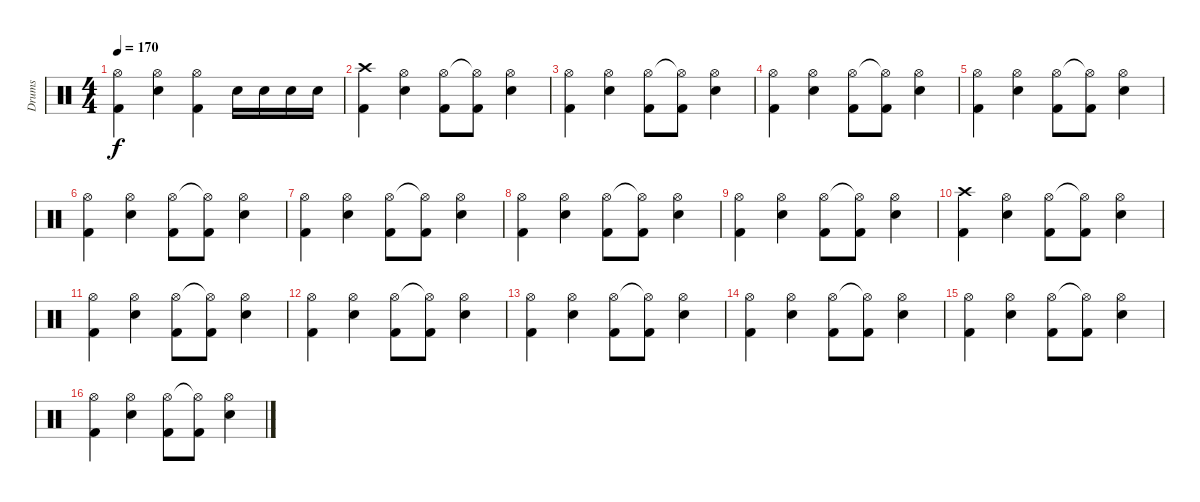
\track ("Drums" "Drums") {instrument percussion}
\staff {score}
\articulation defaults
\ts (4 4)
\tempo 170
\clef neutral
\ks c
("Hi-Hat (open)" "Kick (hit) 2").4{dy f} ("Hi-Hat (open)" "Snare (hit) 2").4 ("Hi-Hat (open)" "Kick (hit) 2").4 "Snare (hit) 2".16 "Snare (hit) 2".16 "Snare (hit) 2".16 "Snare (hit) 2".16 |
("Crash high (hit)" "Kick (hit) 2").4 ("Hi-Hat (open)" "Snare (hit) 2").4 ("Hi-Hat (open)" "Kick (hit) 2").8 ("Hi-Hat (open)"{t} "Kick (hit) 2").8 ("Hi-Hat (open)" "Snare (hit) 2").4 |
("Hi-Hat (open)" "Kick (hit) 2").4 ("Hi-Hat (open)" "Snare (hit) 2").4 ("Hi-Hat (open)" "Kick (hit) 2").8 ("Hi-Hat (open)"{t} "Kick (hit) 2").8 ("Hi-Hat (open)" "Snare (hit) 2").4 |
("Hi-Hat (open)" "Kick (hit) 2").4 ("Hi-Hat (open)" "Snare (hit) 2").4 ("Hi-Hat (open)" "Kick (hit) 2").8 ("Hi-Hat (open)"{t} "Kick (hit) 2").8 ("Hi-Hat (open)" "Snare (hit) 2").4 |
("Hi-Hat (open)" "Kick (hit) 2").4 ("Hi-Hat (open)" "Snare (hit) 2").4 ("Hi-Hat (open)" "Kick (hit) 2").8 ("Hi-Hat (open)"{t} "Kick (hit) 2").8 ("Hi-Hat (open)" "Snare (hit) 2").4 |
("Hi-Hat (open)" "Kick (hit) 2").4 ("Hi-Hat (open)" "Snare (hit) 2").4 ("Hi-Hat (open)" "Kick (hit) 2").8 ("Hi-Hat (open)"{t} "Kick (hit) 2").8 ("Hi-Hat (open)" "Snare (hit) 2").4 |
("Hi-Hat (open)" "Kick (hit) 2").4 ("Hi-Hat (open)" "Snare (hit) 2").4 ("Hi-Hat (open)" "Kick (hit) 2").8 ("Hi-Hat (open)"{t} "Kick (hit) 2").8 ("Hi-Hat (open)" "Snare (hit) 2").4 |
("Hi-Hat (open)" "Kick (hit) 2").4 ("Hi-Hat (open)" "Snare (hit) 2").4 ("Hi-Hat (open)" "Kick (hit) 2").8 ("Hi-Hat (open)"{t} "Kick (hit) 2").8 ("Hi-Hat (open)" "Snare (hit) 2").4 |
("Hi-Hat (open)" "Kick (hit) 2").4 ("Hi-Hat (open)" "Snare (hit) 2").4 ("Hi-Hat (open)" "Kick (hit) 2").8 ("Hi-Hat (open)"{t} "Kick (hit) 2").8 ("Hi-Hat (open)" "Snare (hit) 2").4 |
("Crash high (hit)" "Kick (hit) 2").4 ("Hi-Hat (open)" "Snare (hit) 2").4 ("Hi-Hat (open)" "Kick (hit) 2").8 ("Hi-Hat (open)"{t} "Kick (hit) 2").8 ("Hi-Hat (open)" "Snare (hit) 2").4 |
("Hi-Hat (open)" "Kick (hit) 2").4 ("Hi-Hat (open)" "Snare (hit) 2").4 ("Hi-Hat (open)" "Kick (hit) 2").8 ("Hi-Hat (open)"{t} "Kick (hit) 2").8 ("Hi-Hat (open)" "Snare (hit) 2").4 |
("Hi-Hat (open)" "Kick (hit) 2").4 ("Hi-Hat (open)" "Snare (hit) 2").4 ("Hi-Hat (open)" "Kick (hit) 2").8 ("Hi-Hat (open)"{t} "Kick (hit) 2").8 ("Hi-Hat (open)" "Snare (hit) 2").4 |
("Hi-Hat (open)" "Kick (hit) 2").4 ("Hi-Hat (open)" "Snare (hit) 2").4 ("Hi-Hat (open)" "Kick (hit) 2").8 ("Hi-Hat (open)"{t} "Kick (hit) 2").8 ("Hi-Hat (open)" "Snare (hit) 2").4 |
("Hi-Hat (open)" "Kick (hit) 2").4 ("Hi-Hat (open)" "Snare (hit) 2").4 ("Hi-Hat (open)" "Kick (hit) 2").8 ("Hi-Hat (open)"{t} "Kick (hit) 2").8 ("Hi-Hat (open)" "Snare (hit) 2").4 |
("Hi-Hat (open)" "Kick (hit) 2").4 ("Hi-Hat (open)" "Snare (hit) 2").4 ("Hi-Hat (open)" "Kick (hit) 2").8 ("Hi-Hat (open)"{t} "Kick (hit) 2").8 ("Hi-Hat (open)" "Snare (hit) 2").4 |
("Hi-Hat (open)" "Kick (hit) 2").4 ("Hi-Hat (open)" "Snare (hit) 2").4 ("Hi-Hat (open)" "Kick (hit) 2").8 ("Hi-Hat (open)"{t} "Kick (hit) 2").8 ("Hi-Hat (open)" "Snare (hit) 2").4
